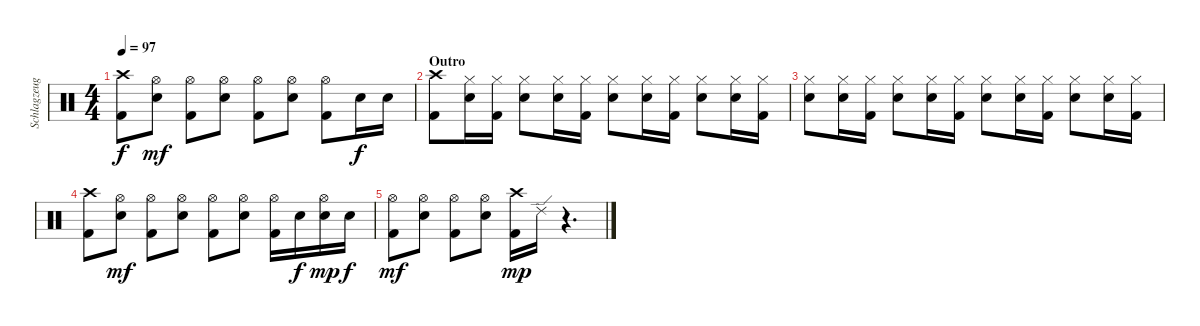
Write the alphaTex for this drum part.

\track ("Schlagzeug" "Schlagzeug") {instrument percussion}
\staff {score}
\articulation defaults
\ts (4 4)
\tempo 97
\clef neutral
\ks c
("Crash high (hit)" "Kick (hit) 2").8{dy f} ("Hi-Hat (open)" "Electric Snare (hit)").8{dy mf} ("Hi-Hat (open)" "Kick (hit) 2").8 ("Hi-Hat (open)" "Electric Snare (hit)").8 ("Hi-Hat (open)" "Kick (hit) 2").8 ("Hi-Hat (open)" "Electric Snare (hit)").8 ("Hi-Hat (open)" "Kick (hit) 2").8 "Electric Snare (hit)".16{dy f} "Electric Snare (hit)".16 |
\section ("" "Outro")
("Crash high (hit)" "Kick (hit) 2").8 ("Hi-Hat (closed)" "Electric Snare (hit)").16 ("Hi-Hat (closed)" "Kick (hit) 2").16 ("Hi-Hat (closed)" "Electric Snare (hit)").8 ("Hi-Hat (closed)" "Electric Snare (hit)").16 ("Hi-Hat (closed)" "Kick (hit) 2").16 ("Hi-Hat (closed)" "Electric Snare (hit)").8 ("Hi-Hat (closed)" "Electric Snare (hit)").16 ("Hi-Hat (closed)" "Kick (hit) 2").16 ("Hi-Hat (closed)" "Electric Snare (hit)").8 ("Hi-Hat (closed)" "Electric Snare (hit)").16 ("Hi-Hat (closed)" "Kick (hit) 2").16 |
("Hi-Hat (closed)" "Electric Snare (hit)").8 ("Hi-Hat (closed)" "Electric Snare (hit)").16 ("Hi-Hat (closed)" "Kick (hit) 2").16 ("Hi-Hat (closed)" "Electric Snare (hit)").8 ("Hi-Hat (closed)" "Electric Snare (hit)").16 ("Hi-Hat (closed)" "Kick (hit) 2").16 ("Hi-Hat (closed)" "Electric Snare (hit)").8 ("Hi-Hat (closed)" "Electric Snare (hit)").16 ("Hi-Hat (closed)" "Kick (hit) 2").16 ("Hi-Hat (closed)" "Electric Snare (hit)").8 ("Hi-Hat (closed)" "Electric Snare (hit)").16 ("Hi-Hat (closed)" "Kick (hit) 2").16 |
("Crash high (hit)" "Kick (hit) 2").8 ("Hi-Hat (open)" "Electric Snare (hit)").8{dy mf} ("Hi-Hat (open)" "Kick (hit) 2").8 ("Hi-Hat (open)" "Electric Snare (hit)").8 ("Hi-Hat (open)" "Kick (hit) 2").8 ("Hi-Hat (open)" "Electric Snare (hit)").8 ("Hi-Hat (open)" "Kick (hit) 2").16 "Electric Snare (hit)".16{dy f} ("Hi-Hat (open)" "Electric Snare (hit)").16{dy mp} "Electric Snare (hit)".16{dy f} |
("Hi-Hat (open)" "Kick (hit) 2").8{dy mf} ("Hi-Hat (open)" "Electric Snare (hit)").8 ("Hi-Hat (open)" "Kick (hit) 2").8 ("Hi-Hat (open)" "Electric Snare (hit)").8 ("Crash high (hit)" "Kick (hit) 2").16{dy mp} "Ride (edge) 2".16 r.4{d}
